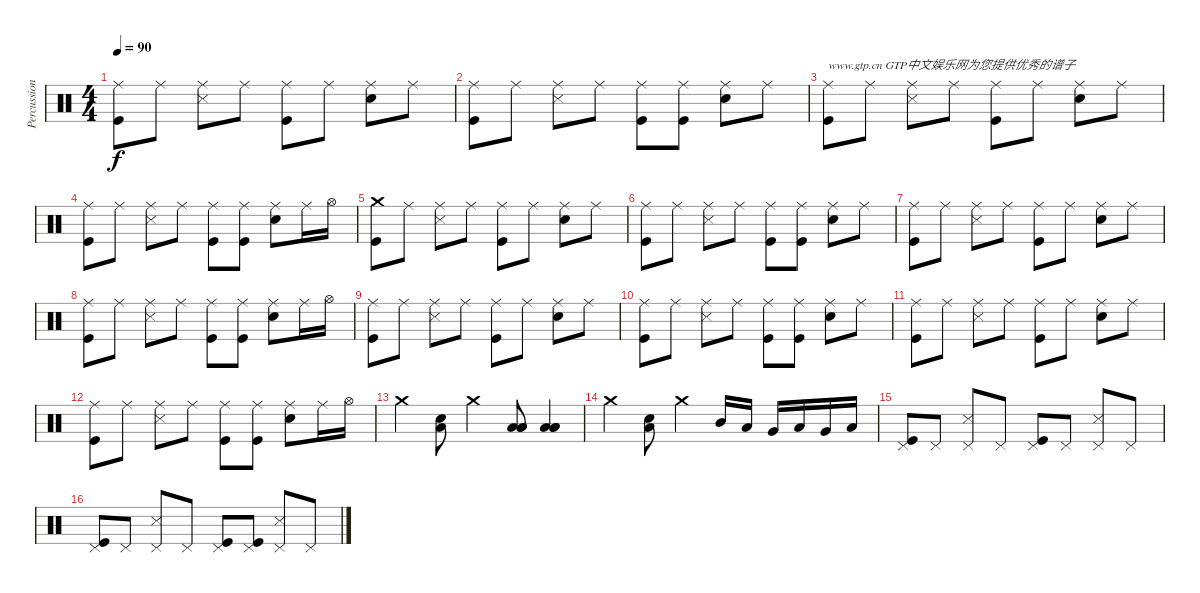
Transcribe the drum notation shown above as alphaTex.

\track ("Percussion" "Percussion") {instrument percussion}
\staff {score}
\articulation defaults
\ts (4 4)
\tempo 90
\clef neutral
\ks c
("Ride (middle)" "Kick (hit)").8{dy f} "Ride (middle)".8 ("Ride (middle)" "Snare (side stick) 3").8 "Ride (middle)".8 ("Ride (middle)" "Kick (hit)").8 "Ride (middle)".8 ("Ride (middle)" "Electric Snare (hit)").8 "Ride (middle)".8 |
("Ride (middle)" "Kick (hit)").8 "Ride (middle)".8 ("Ride (middle)" "Snare (side stick) 3").8 "Ride (middle)".8 ("Ride (middle)" "Kick (hit)").8 ("Ride (middle)" "Kick (hit)").8 ("Ride (middle)" "Electric Snare (hit)").8 "Ride (middle)".8 |
("Ride (middle)" "Kick (hit)").8{txt "www.gtp.cn GTP中文娱乐网为您提供优秀的谱子"} "Ride (middle)".8 ("Ride (middle)" "Snare (side stick) 3").8 "Ride (middle)".8 ("Ride (middle)" "Kick (hit)").8 "Ride (middle)".8 ("Ride (middle)" "Electric Snare (hit)").8 "Ride (middle)".8 |
("Ride (middle)" "Kick (hit)").8 "Ride (middle)".8 ("Ride (middle)" "Snare (side stick) 3").8 "Ride (middle)".8 ("Ride (middle)" "Kick (hit)").8 ("Ride (middle)" "Kick (hit)").8 ("Ride (middle)" "Electric Snare (hit)").8 "Ride (middle)".16 "Hi-Hat (open)".16 |
("Kick (hit)" "Crash medium (hit)").8 "Ride (middle)".8 ("Ride (middle)" "Snare (side stick) 3").8 "Ride (middle)".8 ("Ride (middle)" "Kick (hit)").8 "Ride (middle)".8 ("Ride (middle)" "Electric Snare (hit)").8 "Ride (middle)".8 |
("Ride (middle)" "Kick (hit)").8 "Ride (middle)".8 ("Ride (middle)" "Snare (side stick) 3").8 "Ride (middle)".8 ("Ride (middle)" "Kick (hit)").8 ("Ride (middle)" "Kick (hit)").8 ("Ride (middle)" "Electric Snare (hit)").8 "Ride (middle)".8 |
("Ride (middle)" "Kick (hit)").8 "Ride (middle)".8 ("Ride (middle)" "Snare (side stick) 3").8 "Ride (middle)".8 ("Ride (middle)" "Kick (hit)").8 "Ride (middle)".8 ("Ride (middle)" "Electric Snare (hit)").8 "Ride (middle)".8 |
("Ride (middle)" "Kick (hit)").8 "Ride (middle)".8 ("Ride (middle)" "Snare (side stick) 3").8 "Ride (middle)".8 ("Ride (middle)" "Kick (hit)").8 ("Ride (middle)" "Kick (hit)").8 ("Ride (middle)" "Electric Snare (hit)").8 "Ride (middle)".16 "Hi-Hat (open)".16 |
("Ride (middle)" "Kick (hit)").8 "Ride (middle)".8 ("Ride (middle)" "Snare (side stick) 3").8 "Ride (middle)".8 ("Ride (middle)" "Kick (hit)").8 "Ride (middle)".8 ("Ride (middle)" "Electric Snare (hit)").8 "Ride (middle)".8 |
("Ride (middle)" "Kick (hit)").8 "Ride (middle)".8 ("Ride (middle)" "Snare (side stick) 3").8 "Ride (middle)".8 ("Ride (middle)" "Kick (hit)").8 ("Ride (middle)" "Kick (hit)").8 ("Ride (middle)" "Electric Snare (hit)").8 "Ride (middle)".8 |
("Ride (middle)" "Kick (hit)").8 "Ride (middle)".8 ("Ride (middle)" "Snare (side stick) 3").8 "Ride (middle)".8 ("Ride (middle)" "Kick (hit)").8 "Ride (middle)".8 ("Ride (middle)" "Electric Snare (hit)").8 "Ride (middle)".8 |
("Ride (middle)" "Kick (hit)").8 "Ride (middle)".8 ("Ride (middle)" "Snare (side stick) 3").8 "Ride (middle)".8 ("Ride (middle)" "Kick (hit)").8 ("Ride (middle)" "Kick (hit)").8 ("Ride (middle)" "Electric Snare (hit)").8 "Ride (middle)".16 "Hi-Hat (open)".16 |
"Crash medium (hit)".4 ("Low Tom (hit)" "Electric Snare (hit)").8 "Crash medium (hit)".4 ("Low Tom (hit)" "Low Tom (hit)" "Low Tom (hit)").8 ("Low Tom (hit)" "Low Tom (hit)" "Low Tom (hit)").4 |
"Crash medium (hit)".4 ("Low Tom (hit)" "Electric Snare (hit)").8 "Crash medium (hit)".4 "Mid Tom (hit)".16 "Low Tom (hit)".16 "Very Low Tom (hit)".16 "Low Floor Tom (hit)".16 "Very Low Tom (hit)".16 "Low Floor Tom (hit)".16 |
("Pedal Hi-Hat (hit)" "Kick (hit)").8 "Pedal Hi-Hat (hit)".8 ("Pedal Hi-Hat (hit)" "Snare (side stick) 3").8 "Pedal Hi-Hat (hit)".8 ("Pedal Hi-Hat (hit)" "Kick (hit)").8 "Pedal Hi-Hat (hit)".8 ("Pedal Hi-Hat (hit)" "Snare (side stick) 3").8 "Pedal Hi-Hat (hit)".8 |
("Pedal Hi-Hat (hit)" "Kick (hit)").8 "Pedal Hi-Hat (hit)".8 ("Pedal Hi-Hat (hit)" "Snare (side stick) 3").8 "Pedal Hi-Hat (hit)".8 ("Pedal Hi-Hat (hit)" "Kick (hit)").8 ("Pedal Hi-Hat (hit)" "Kick (hit)").8 ("Pedal Hi-Hat (hit)" "Snare (side stick) 3").8 "Pedal Hi-Hat (hit)".8
